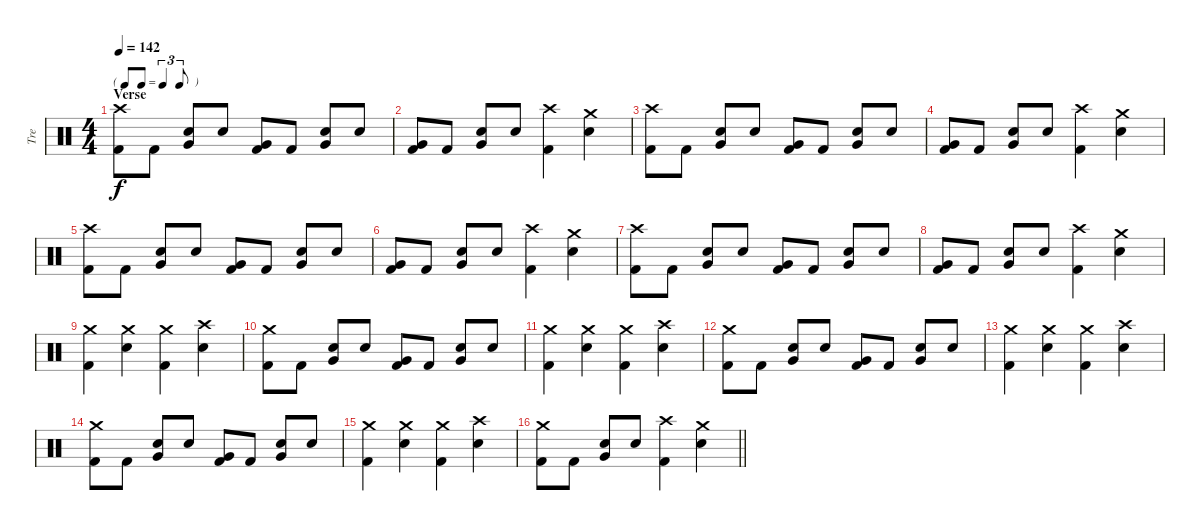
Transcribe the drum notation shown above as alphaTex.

\track ("Tre" "Tre") {instrument percussion}
\staff {score}
\articulation defaults
\ts (4 4)
\tf triplet8th
\section ("" "Verse")
\tempo 142
\clef neutral
\ks c
("Crash high (hit)" "Kick (hit) 2").8{dy f} "Kick (hit) 2".8 ("Snare (hit) 2" "Very Low Tom (hit)").8 "Snare (hit) 2".8 ("Very Low Tom (hit)" "Kick (hit) 2").8 "Kick (hit) 2".8 ("Snare (hit) 2" "Very Low Tom (hit)").8 "Snare (hit) 2".8 |
("Very Low Tom (hit)" "Kick (hit) 2").8 "Kick (hit) 2".8 ("Snare (hit) 2" "Very Low Tom (hit)").8 "Snare (hit) 2".8 ("Crash high (hit)" "Kick (hit) 2").4 ("Crash medium (hit)" "Snare (hit) 2").4 |
("Crash high (hit)" "Kick (hit) 2").8 "Kick (hit) 2".8 ("Snare (hit) 2" "Very Low Tom (hit)").8 "Snare (hit) 2".8 ("Very Low Tom (hit)" "Kick (hit) 2").8 "Kick (hit) 2".8 ("Snare (hit) 2" "Very Low Tom (hit)").8 "Snare (hit) 2".8 |
("Very Low Tom (hit)" "Kick (hit) 2").8 "Kick (hit) 2".8 ("Snare (hit) 2" "Very Low Tom (hit)").8 "Snare (hit) 2".8 ("Crash high (hit)" "Kick (hit) 2").4 ("Crash medium (hit)" "Snare (hit) 2").4 |
("Crash high (hit)" "Kick (hit) 2").8 "Kick (hit) 2".8 ("Snare (hit) 2" "Very Low Tom (hit)").8 "Snare (hit) 2".8 ("Very Low Tom (hit)" "Kick (hit) 2").8 "Kick (hit) 2".8 ("Snare (hit) 2" "Very Low Tom (hit)").8 "Snare (hit) 2".8 |
("Very Low Tom (hit)" "Kick (hit) 2").8 "Kick (hit) 2".8 ("Snare (hit) 2" "Very Low Tom (hit)").8 "Snare (hit) 2".8 ("Crash high (hit)" "Kick (hit) 2").4 ("Crash medium (hit)" "Snare (hit) 2").4 |
("Crash high (hit)" "Kick (hit) 2").8 "Kick (hit) 2".8 ("Snare (hit) 2" "Very Low Tom (hit)").8 "Snare (hit) 2".8 ("Very Low Tom (hit)" "Kick (hit) 2").8 "Kick (hit) 2".8 ("Snare (hit) 2" "Very Low Tom (hit)").8 "Snare (hit) 2".8 |
("Very Low Tom (hit)" "Kick (hit) 2").8 "Kick (hit) 2".8 ("Snare (hit) 2" "Very Low Tom (hit)").8 "Snare (hit) 2".8 ("Crash high (hit)" "Kick (hit) 2").4 ("Crash medium (hit)" "Snare (hit) 2").4 |
("Crash medium (hit)" "Kick (hit) 2").4 ("Crash medium (hit)" "Snare (hit) 2").4 ("Crash medium (hit)" "Kick (hit) 2").4 ("Crash high (hit)" "Snare (hit) 2").4 |
("Crash medium (hit)" "Kick (hit) 2").8 "Kick (hit) 2".8 ("Snare (hit) 2" "Very Low Tom (hit)").8 "Snare (hit) 2".8 ("Very Low Tom (hit)" "Kick (hit) 2").8 "Kick (hit) 2".8 ("Snare (hit) 2" "Very Low Tom (hit)").8 "Snare (hit) 2".8 |
("Crash medium (hit)" "Kick (hit) 2").4 ("Crash medium (hit)" "Snare (hit) 2").4 ("Crash medium (hit)" "Kick (hit) 2").4 ("Crash high (hit)" "Snare (hit) 2").4 |
("Crash medium (hit)" "Kick (hit) 2").8 "Kick (hit) 2".8 ("Snare (hit) 2" "Very Low Tom (hit)").8 "Snare (hit) 2".8 ("Very Low Tom (hit)" "Kick (hit) 2").8 "Kick (hit) 2".8 ("Snare (hit) 2" "Very Low Tom (hit)").8 "Snare (hit) 2".8 |
("Crash medium (hit)" "Kick (hit) 2").4 ("Crash medium (hit)" "Snare (hit) 2").4 ("Crash medium (hit)" "Kick (hit) 2").4 ("Crash high (hit)" "Snare (hit) 2").4 |
("Crash medium (hit)" "Kick (hit) 2").8 "Kick (hit) 2".8 ("Snare (hit) 2" "Very Low Tom (hit)").8 "Snare (hit) 2".8 ("Very Low Tom (hit)" "Kick (hit) 2").8 "Kick (hit) 2".8 ("Snare (hit) 2" "Very Low Tom (hit)").8 "Snare (hit) 2".8 |
("Crash medium (hit)" "Kick (hit) 2").4 ("Crash medium (hit)" "Snare (hit) 2").4 ("Crash medium (hit)" "Kick (hit) 2").4 ("Crash high (hit)" "Snare (hit) 2").4 |
\barLineRight lightlight
("Crash medium (hit)" "Kick (hit) 2").8 "Kick (hit) 2".8 ("Snare (hit) 2" "Very Low Tom (hit)").8 "Snare (hit) 2".8 ("Crash high (hit)" "Kick (hit) 2").4 ("Crash medium (hit)" "Snare (hit) 2").4
